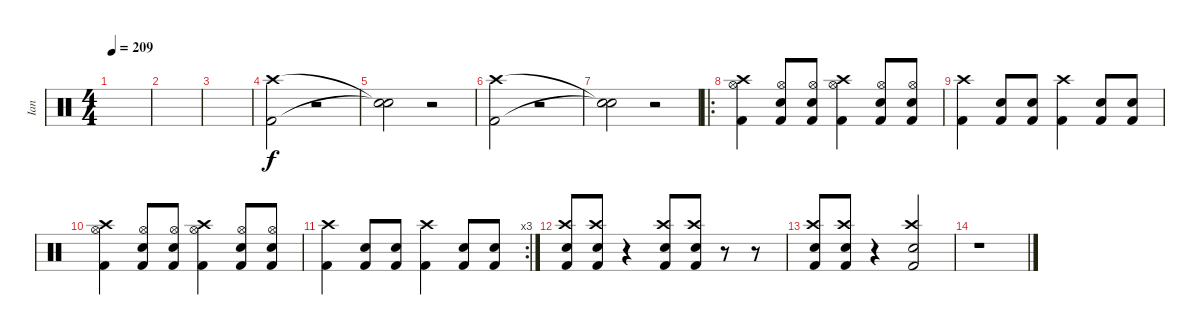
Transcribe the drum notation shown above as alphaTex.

\track ("Ian" "Ian") {instrument percussion}
\staff {score}
\articulation defaults
\ts (4 4)
\tempo 209
\clef neutral
\ks c
|
|
|
("Kick (hit) 2" "Crash high (hit)").2 r.2 |
("Snare (hit)"{t} "Snare (hit)"{t}).2 r.2 |
("Kick (hit) 2" "Crash high (hit)").2 r.2 |
("Snare (hit)"{t} "Snare (hit)"{t}).2 r.2 |
\ro
("Hi-Hat (open)" "Crash high (hit)" "Kick (hit) 2").4 ("Electric Snare (hit)" "Hi-Hat (open)" "Kick (hit) 2").8 ("Electric Snare (hit)" "Hi-Hat (open)" "Kick (hit) 2").8 ("Hi-Hat (open)" "Crash high (hit)" "Kick (hit) 2").4 ("Electric Snare (hit)" "Hi-Hat (open)" "Kick (hit) 2").8 ("Electric Snare (hit)" "Hi-Hat (open)" "Kick (hit) 2").8 |
("Crash high (hit)" "Kick (hit) 2").4 ("Electric Snare (hit)" "Kick (hit) 2").8 ("Electric Snare (hit)" "Kick (hit) 2").8 ("Crash high (hit)" "Kick (hit) 2").4 ("Electric Snare (hit)" "Kick (hit) 2").8 ("Electric Snare (hit)" "Kick (hit) 2").8 |
("Hi-Hat (open)" "Crash high (hit)" "Kick (hit) 2").4 ("Electric Snare (hit)" "Hi-Hat (open)" "Kick (hit) 2").8 ("Electric Snare (hit)" "Hi-Hat (open)" "Kick (hit) 2").8 ("Hi-Hat (open)" "Crash high (hit)" "Kick (hit) 2").4 ("Electric Snare (hit)" "Hi-Hat (open)" "Kick (hit) 2").8 ("Electric Snare (hit)" "Hi-Hat (open)" "Kick (hit) 2").8 |
\rc 3
("Crash high (hit)" "Kick (hit) 2").4 ("Electric Snare (hit)" "Kick (hit) 2").8 ("Electric Snare (hit)" "Kick (hit) 2").8 ("Crash high (hit)" "Kick (hit) 2").4 ("Electric Snare (hit)" "Kick (hit) 2").8 ("Electric Snare (hit)" "Kick (hit) 2").8 |
("Crash high (hit)" "Electric Snare (hit)" "Kick (hit) 2").8 ("Crash high (hit)" "Electric Snare (hit)" "Kick (hit) 2").8 r.4 ("Crash high (hit)" "Electric Snare (hit)" "Kick (hit) 2").8 ("Crash high (hit)" "Electric Snare (hit)" "Kick (hit) 2").8 r.8 r.8 |
("Crash high (hit)" "Electric Snare (hit)" "Kick (hit) 2").8 ("Crash high (hit)" "Electric Snare (hit)" "Kick (hit) 2").8 r.4 ("Electric Snare (hit)" "Crash high (hit)" "Kick (hit) 2").2 |
r.1
